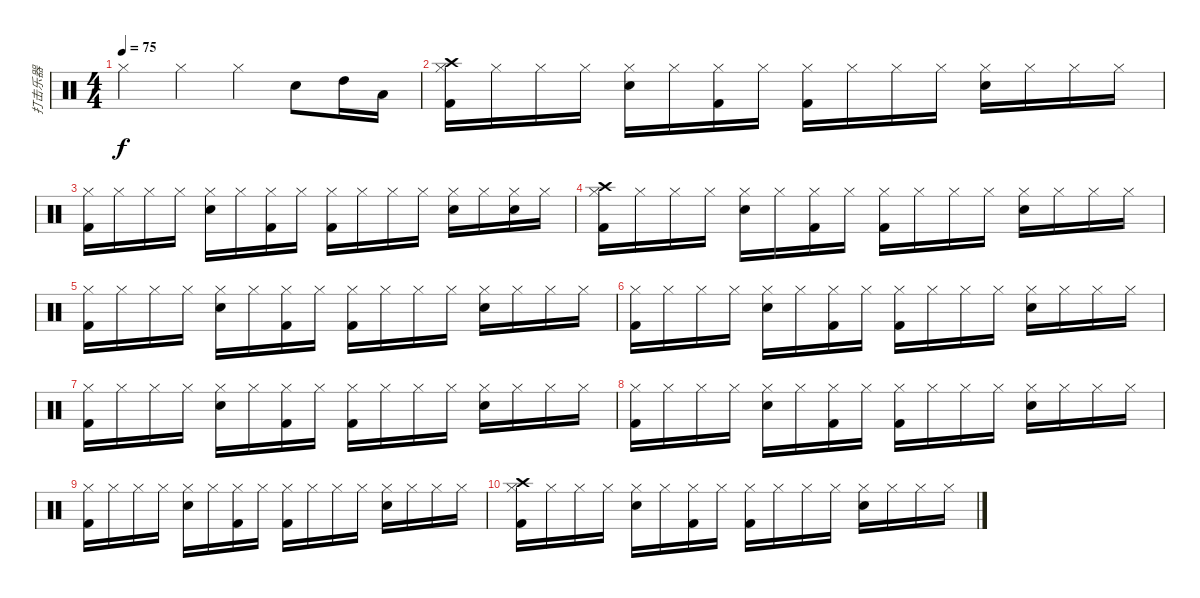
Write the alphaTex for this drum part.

\track ("打击乐器" "打击乐器") {instrument percussion}
\staff {score}
\articulation defaults
\ts (4 4)
\tempo 75
\clef neutral
\ks c "Hi-Hat (closed)".4{dy f} "Hi-Hat (closed)".4 "Hi-Hat (closed)".4 "Electric Snare (hit)".8 "High Tom (hit)".16 "Low Tom (hit)".16
|
("Hi-Hat (closed)" "Crash high (hit)" "Kick (hit) 2").16 "Hi-Hat (closed)".16 "Hi-Hat (closed)".16 "Hi-Hat (closed)".16 ("Hi-Hat (closed)" "Electric Snare (hit)").16 "Hi-Hat (closed)".16 ("Hi-Hat (closed)" "Kick (hit) 2").16 "Hi-Hat (closed)".16 ("Hi-Hat (closed)" "Kick (hit) 2").16 "Hi-Hat (closed)".16 "Hi-Hat (closed)".16 "Hi-Hat (closed)".16 ("Hi-Hat (closed)" "Electric Snare (hit)").16 "Hi-Hat (closed)".16 "Hi-Hat (closed)".16 "Hi-Hat (closed)".16 |
("Hi-Hat (closed)" "Kick (hit) 2").16 "Hi-Hat (closed)".16 "Hi-Hat (closed)".16 "Hi-Hat (closed)".16 ("Hi-Hat (closed)" "Electric Snare (hit)").16 "Hi-Hat (closed)".16 ("Hi-Hat (closed)" "Kick (hit) 2").16 "Hi-Hat (closed)".16 ("Hi-Hat (closed)" "Kick (hit) 2").16 "Hi-Hat (closed)".16 "Hi-Hat (closed)".16 "Hi-Hat (closed)".16 ("Hi-Hat (closed)" "Electric Snare (hit)").16 "Hi-Hat (closed)".16 ("Hi-Hat (closed)" "Electric Snare (hit)").16 "Hi-Hat (closed)".16 |
("Hi-Hat (closed)" "Crash high (hit)" "Kick (hit) 2").16 "Hi-Hat (closed)".16 "Hi-Hat (closed)".16 "Hi-Hat (closed)".16 ("Hi-Hat (closed)" "Electric Snare (hit)").16 "Hi-Hat (closed)".16 ("Hi-Hat (closed)" "Kick (hit) 2").16 "Hi-Hat (closed)".16 ("Hi-Hat (closed)" "Kick (hit) 2").16 "Hi-Hat (closed)".16 "Hi-Hat (closed)".16 "Hi-Hat (closed)".16 ("Hi-Hat (closed)" "Electric Snare (hit)").16 "Hi-Hat (closed)".16 "Hi-Hat (closed)".16 "Hi-Hat (closed)".16 |
("Hi-Hat (closed)" "Kick (hit) 2").16 "Hi-Hat (closed)".16 "Hi-Hat (closed)".16 "Hi-Hat (closed)".16 ("Hi-Hat (closed)" "Electric Snare (hit)").16 "Hi-Hat (closed)".16 ("Hi-Hat (closed)" "Kick (hit) 2").16 "Hi-Hat (closed)".16 ("Hi-Hat (closed)" "Kick (hit) 2").16 "Hi-Hat (closed)".16 "Hi-Hat (closed)".16 "Hi-Hat (closed)".16 ("Hi-Hat (closed)" "Electric Snare (hit)").16 "Hi-Hat (closed)".16 "Hi-Hat (closed)".16 "Hi-Hat (closed)".16 |
("Hi-Hat (closed)" "Kick (hit) 2").16 "Hi-Hat (closed)".16 "Hi-Hat (closed)".16 "Hi-Hat (closed)".16 ("Hi-Hat (closed)" "Electric Snare (hit)").16 "Hi-Hat (closed)".16 ("Hi-Hat (closed)" "Kick (hit) 2").16 "Hi-Hat (closed)".16 ("Hi-Hat (closed)" "Kick (hit) 2").16 "Hi-Hat (closed)".16 "Hi-Hat (closed)".16 "Hi-Hat (closed)".16 ("Hi-Hat (closed)" "Electric Snare (hit)").16 "Hi-Hat (closed)".16 "Hi-Hat (closed)".16 "Hi-Hat (closed)".16 |
("Hi-Hat (closed)" "Kick (hit) 2").16 "Hi-Hat (closed)".16 "Hi-Hat (closed)".16 "Hi-Hat (closed)".16 ("Hi-Hat (closed)" "Electric Snare (hit)").16 "Hi-Hat (closed)".16 ("Hi-Hat (closed)" "Kick (hit) 2").16 "Hi-Hat (closed)".16 ("Hi-Hat (closed)" "Kick (hit) 2").16 "Hi-Hat (closed)".16 "Hi-Hat (closed)".16 "Hi-Hat (closed)".16 ("Hi-Hat (closed)" "Electric Snare (hit)").16 "Hi-Hat (closed)".16 "Hi-Hat (closed)".16 "Hi-Hat (closed)".16 |
("Hi-Hat (closed)" "Kick (hit) 2").16 "Hi-Hat (closed)".16 "Hi-Hat (closed)".16 "Hi-Hat (closed)".16 ("Hi-Hat (closed)" "Electric Snare (hit)").16 "Hi-Hat (closed)".16 ("Hi-Hat (closed)" "Kick (hit) 2").16 "Hi-Hat (closed)".16 ("Hi-Hat (closed)" "Kick (hit) 2").16 "Hi-Hat (closed)".16 "Hi-Hat (closed)".16 "Hi-Hat (closed)".16 ("Hi-Hat (closed)" "Electric Snare (hit)").16 "Hi-Hat (closed)".16 "Hi-Hat (closed)".16 "Hi-Hat (closed)".16 |
("Hi-Hat (closed)" "Kick (hit) 2").16 "Hi-Hat (closed)".16 "Hi-Hat (closed)".16 "Hi-Hat (closed)".16 ("Hi-Hat (closed)" "Electric Snare (hit)").16 "Hi-Hat (closed)".16 ("Hi-Hat (closed)" "Kick (hit) 2").16 "Hi-Hat (closed)".16 ("Hi-Hat (closed)" "Kick (hit) 2").16 "Hi-Hat (closed)".16 "Hi-Hat (closed)".16 "Hi-Hat (closed)".16 ("Hi-Hat (closed)" "Electric Snare (hit)").16 "Hi-Hat (closed)".16 "Hi-Hat (closed)".16 "Hi-Hat (closed)".16 |
("Hi-Hat (closed)" "Crash high (hit)" "Kick (hit) 2").16 "Hi-Hat (closed)".16 "Hi-Hat (closed)".16 "Hi-Hat (closed)".16 ("Hi-Hat (closed)" "Electric Snare (hit)").16 "Hi-Hat (closed)".16 ("Hi-Hat (closed)" "Kick (hit) 2").16 "Hi-Hat (closed)".16 ("Hi-Hat (closed)" "Kick (hit) 2").16 "Hi-Hat (closed)".16 "Hi-Hat (closed)".16 "Hi-Hat (closed)".16 ("Hi-Hat (closed)" "Electric Snare (hit)").16 "Hi-Hat (closed)".16 "Hi-Hat (closed)".16 "Hi-Hat (closed)".16
